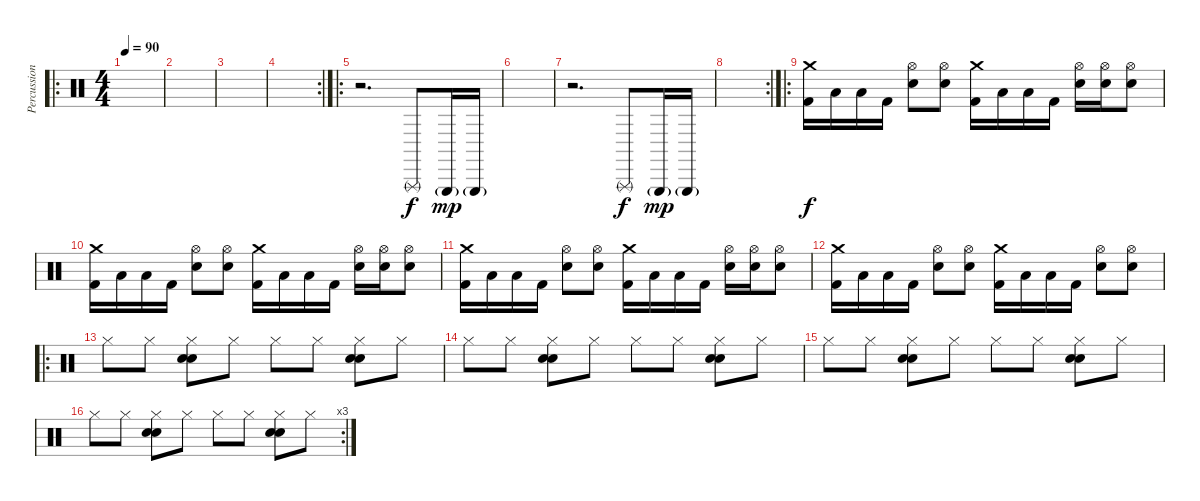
\track ("Percussion" "Percussion") {instrument percussion}
\staff {score}
\articulation defaults
\ro
\ts (4 4)
\tempo 90
\clef neutral
\ks c
|
|
|
\rc 2
|
\ro
r.2{d} "Triangle (rnute)".8 "Triangle (hit)"{g}.16{dy mp} "Triangle (hit)"{g}.16 |
|
r.2{d} "Triangle (rnute)".8{dy f} "Triangle (hit)"{g}.16{dy mp} "Triangle (hit)"{g}.16 |
\rc 2
|
\ro
("Crash medium (hit)" "Kick (hit) 2").16{dy f} "Low Tom (hit)".16 "Low Floor Tom (hit)".16 "Kick (hit) 2".16 ("Hi-Hat (open)" "Electric Snare (hit)").8 ("Hi-Hat (open)" "Electric Snare (hit)").8 ("Crash medium (hit)" "Kick (hit) 2").16 "Low Tom (hit)".16 "Low Floor Tom (hit)".16 "Kick (hit) 2".16 ("Hi-Hat (open)" "Electric Snare (hit)").16 ("Hi-Hat (open)" "Electric Snare (hit)").16 ("Hi-Hat (open)" "Electric Snare (hit)").8 |
("Crash medium (hit)" "Kick (hit) 2").16 "Low Tom (hit)".16 "Low Floor Tom (hit)".16 "Kick (hit) 2".16 ("Hi-Hat (open)" "Electric Snare (hit)").8 ("Hi-Hat (open)" "Electric Snare (hit)").8 ("Crash medium (hit)" "Kick (hit) 2").16 "Low Tom (hit)".16 "Low Floor Tom (hit)".16 "Kick (hit) 2".16 ("Hi-Hat (open)" "Electric Snare (hit)").16 ("Hi-Hat (open)" "Electric Snare (hit)").16 ("Hi-Hat (open)" "Electric Snare (hit)").8 |
("Crash medium (hit)" "Kick (hit) 2").16 "Low Tom (hit)".16 "Low Floor Tom (hit)".16 "Kick (hit) 2".16 ("Hi-Hat (open)" "Electric Snare (hit)").8 ("Hi-Hat (open)" "Electric Snare (hit)").8 ("Crash medium (hit)" "Kick (hit) 2").16 "Low Tom (hit)".16 "Low Floor Tom (hit)".16 "Kick (hit) 2".16 ("Hi-Hat (open)" "Electric Snare (hit)").16 ("Hi-Hat (open)" "Electric Snare (hit)").16 ("Hi-Hat (open)" "Electric Snare (hit)").8 |
("Crash medium (hit)" "Kick (hit) 2").16 "Low Tom (hit)".16 "Low Floor Tom (hit)".16 "Kick (hit) 2".16 ("Hi-Hat (open)" "Electric Snare (hit)").8 ("Hi-Hat (open)" "Electric Snare (hit)").8 ("Crash medium (hit)" "Kick (hit) 2").16 "Low Tom (hit)".16 "Low Floor Tom (hit)".16 "Kick (hit) 2".16 ("Hi-Hat (open)" "Electric Snare (hit)").8 ("Hi-Hat (open)" "Electric Snare (hit)").8 |
\ro "Hi-Hat (closed)".8 "Hi-Hat (closed)".8
("Hi-Hat (closed)" "Snare (hit) 2" "Snare (hit) 2").8 "Hi-Hat (closed)".8 "Hi-Hat (closed)".8 "Hi-Hat (closed)".8 ("Hi-Hat (closed)" "Snare (hit) 2" "Snare (hit) 2").8 "Hi-Hat (closed)".8 |
"Hi-Hat (closed)".8 "Hi-Hat (closed)".8 ("Hi-Hat (closed)" "Snare (hit) 2" "Snare (hit) 2").8 "Hi-Hat (closed)".8 "Hi-Hat (closed)".8 "Hi-Hat (closed)".8 ("Hi-Hat (closed)" "Snare (hit) 2" "Snare (hit) 2").8 "Hi-Hat (closed)".8 |
"Hi-Hat (closed)".8 "Hi-Hat (closed)".8 ("Hi-Hat (closed)" "Snare (hit) 2" "Snare (hit) 2").8 "Hi-Hat (closed)".8 "Hi-Hat (closed)".8 "Hi-Hat (closed)".8 ("Hi-Hat (closed)" "Snare (hit) 2" "Snare (hit) 2").8 "Hi-Hat (closed)".8 |
\rc 3 "Hi-Hat (closed)".8 "Hi-Hat (closed)".8
("Hi-Hat (closed)" "Snare (hit) 2" "Snare (hit) 2").8 "Hi-Hat (closed)".8 "Hi-Hat (closed)".8 "Hi-Hat (closed)".8 ("Hi-Hat (closed)" "Snare (hit) 2" "Snare (hit) 2").8 "Hi-Hat (closed)".8
